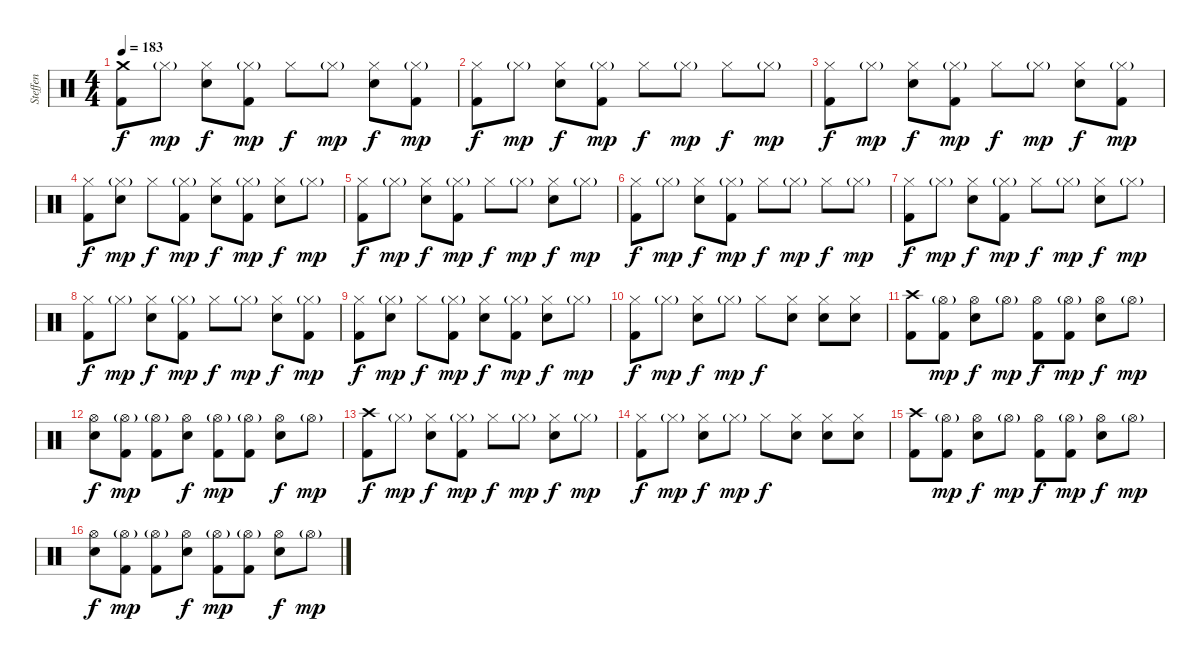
\track ("Steffen" "Steffen") {instrument percussion}
\staff {score}
\articulation defaults
\ts (4 4)
\tempo 183
\clef neutral
\ks c
("Crash medium (hit)" "Kick (hit) 2").8{dy f} "Hi-Hat (closed)"{g}.8{dy mp} ("Hi-Hat (closed)" "Electric Snare (hit)").8{dy f} ("Hi-Hat (closed)"{g} "Kick (hit) 2").8{dy mp} "Hi-Hat (closed)".8{dy f} "Hi-Hat (closed)"{g}.8{dy mp} ("Hi-Hat (closed)" "Electric Snare (hit)").8{dy f} ("Hi-Hat (closed)"{g} "Kick (hit) 2").8{dy mp} |
("Hi-Hat (closed)" "Kick (hit) 2").8{dy f} "Hi-Hat (closed)"{g}.8{dy mp} ("Hi-Hat (closed)" "Electric Snare (hit)").8{dy f} ("Hi-Hat (closed)"{g} "Kick (hit) 2").8{dy mp} "Hi-Hat (closed)".8{dy f} "Hi-Hat (closed)"{g}.8{dy mp} "Hi-Hat (closed)".8{dy f} "Hi-Hat (closed)"{g}.8{dy mp} |
("Hi-Hat (closed)" "Kick (hit) 2").8{dy f} "Hi-Hat (closed)"{g}.8{dy mp} ("Hi-Hat (closed)" "Electric Snare (hit)").8{dy f} ("Hi-Hat (closed)"{g} "Kick (hit) 2").8{dy mp} "Hi-Hat (closed)".8{dy f} "Hi-Hat (closed)"{g}.8{dy mp} ("Hi-Hat (closed)" "Electric Snare (hit)").8{dy f} ("Hi-Hat (closed)"{g} "Kick (hit) 2").8{dy mp} |
("Hi-Hat (closed)" "Kick (hit) 2").8{dy f} ("Hi-Hat (closed)"{g} "Electric Snare (hit)").8{dy mp} "Hi-Hat (closed)".8{dy f} ("Hi-Hat (closed)"{g} "Kick (hit) 2").8{dy mp} ("Hi-Hat (closed)" "Electric Snare (hit)").8{dy f} ("Hi-Hat (closed)"{g} "Kick (hit) 2").8{dy mp} ("Hi-Hat (closed)" "Electric Snare (hit)").8{dy f} "Hi-Hat (closed)"{g}.8{dy mp} |
("Hi-Hat (closed)" "Kick (hit) 2").8{dy f} "Hi-Hat (closed)"{g}.8{dy mp} ("Hi-Hat (closed)" "Electric Snare (hit)").8{dy f} ("Hi-Hat (closed)"{g} "Kick (hit) 2").8{dy mp} "Hi-Hat (closed)".8{dy f} "Hi-Hat (closed)"{g}.8{dy mp} ("Hi-Hat (closed)" "Electric Snare (hit)").8{dy f} "Hi-Hat (closed)"{g}.8{dy mp} |
("Hi-Hat (closed)" "Kick (hit) 2").8{dy f} "Hi-Hat (closed)"{g}.8{dy mp} ("Hi-Hat (closed)" "Electric Snare (hit)").8{dy f} ("Hi-Hat (closed)"{g} "Kick (hit) 2").8{dy mp} "Hi-Hat (closed)".8{dy f} "Hi-Hat (closed)"{g}.8{dy mp} "Hi-Hat (closed)".8{dy f} "Hi-Hat (closed)"{g}.8{dy mp} |
("Hi-Hat (closed)" "Kick (hit) 2").8{dy f} "Hi-Hat (closed)"{g}.8{dy mp} ("Hi-Hat (closed)" "Electric Snare (hit)").8{dy f} ("Hi-Hat (closed)"{g} "Kick (hit) 2").8{dy mp} "Hi-Hat (closed)".8{dy f} "Hi-Hat (closed)"{g}.8{dy mp} ("Hi-Hat (closed)" "Electric Snare (hit)").8{dy f} "Hi-Hat (closed)"{g}.8{dy mp} |
("Hi-Hat (closed)" "Kick (hit) 2").8{dy f} "Hi-Hat (closed)"{g}.8{dy mp} ("Hi-Hat (closed)" "Electric Snare (hit)").8{dy f} ("Hi-Hat (closed)"{g} "Kick (hit) 2").8{dy mp} "Hi-Hat (closed)".8{dy f} "Hi-Hat (closed)"{g}.8{dy mp} ("Hi-Hat (closed)" "Electric Snare (hit)").8{dy f} ("Hi-Hat (closed)"{g} "Kick (hit) 2").8{dy mp} |
("Hi-Hat (closed)" "Kick (hit) 2").8{dy f} ("Hi-Hat (closed)"{g} "Electric Snare (hit)").8{dy mp} "Hi-Hat (closed)".8{dy f} ("Hi-Hat (closed)"{g} "Kick (hit) 2").8{dy mp} ("Hi-Hat (closed)" "Electric Snare (hit)").8{dy f} ("Hi-Hat (closed)"{g} "Kick (hit) 2").8{dy mp} ("Hi-Hat (closed)" "Electric Snare (hit)").8{dy f} "Hi-Hat (closed)"{g}.8{dy mp} |
("Hi-Hat (closed)" "Kick (hit) 2").8{dy f} "Hi-Hat (closed)"{g}.8{dy mp} ("Hi-Hat (closed)" "Electric Snare (hit)").8{dy f} "Hi-Hat (closed)"{g}.8{dy mp} "Hi-Hat (closed)".8{dy f} ("Hi-Hat (closed)" "Electric Snare (hit)").8 ("Hi-Hat (closed)" "Electric Snare (hit)").8 ("Hi-Hat (closed)" "Electric Snare (hit)").8 |
("Crash high (hit)" "Kick (hit) 2").8 ("Hi-Hat (open)"{g} "Kick (hit) 2").8{dy mp} ("Hi-Hat (open)" "Electric Snare (hit)").8{dy f} "Hi-Hat (open)"{g}.8{dy mp} ("Hi-Hat (open)" "Kick (hit) 2").8{dy f} ("Hi-Hat (open)"{g} "Kick (hit) 2").8{dy mp} ("Hi-Hat (open)" "Electric Snare (hit)").8{dy f} "Hi-Hat (open)"{g}.8{dy mp} |
("Hi-Hat (open)" "Electric Snare (hit)").8{dy f} ("Hi-Hat (open)"{g} "Kick (hit) 2").8{dy mp} ("Hi-Hat (open)"{g} "Kick (hit) 2").8 ("Hi-Hat (open)" "Electric Snare (hit)").8{dy f} ("Hi-Hat (open)"{g} "Kick (hit) 2").8{dy mp} ("Hi-Hat (open)"{g} "Kick (hit) 2").8 ("Hi-Hat (open)" "Electric Snare (hit)").8{dy f} "Hi-Hat (open)"{g}.8{dy mp} |
("Crash high (hit)" "Kick (hit) 2").8{dy f} "Hi-Hat (closed)"{g}.8{dy mp} ("Hi-Hat (closed)" "Electric Snare (hit)").8{dy f} ("Hi-Hat (closed)"{g} "Kick (hit) 2").8{dy mp} "Hi-Hat (closed)".8{dy f} "Hi-Hat (closed)"{g}.8{dy mp} ("Hi-Hat (closed)" "Electric Snare (hit)").8{dy f} "Hi-Hat (closed)"{g}.8{dy mp} |
("Hi-Hat (closed)" "Kick (hit) 2").8{dy f} "Hi-Hat (closed)"{g}.8{dy mp} ("Hi-Hat (closed)" "Electric Snare (hit)").8{dy f} "Hi-Hat (closed)"{g}.8{dy mp} "Hi-Hat (closed)".8{dy f} ("Hi-Hat (closed)" "Electric Snare (hit)").8 ("Hi-Hat (closed)" "Electric Snare (hit)").8 ("Hi-Hat (closed)" "Electric Snare (hit)").8 |
("Crash high (hit)" "Kick (hit) 2").8 ("Hi-Hat (open)"{g} "Kick (hit) 2").8{dy mp} ("Hi-Hat (open)" "Electric Snare (hit)").8{dy f} "Hi-Hat (open)"{g}.8{dy mp} ("Hi-Hat (open)" "Kick (hit) 2").8{dy f} ("Hi-Hat (open)"{g} "Kick (hit) 2").8{dy mp} ("Hi-Hat (open)" "Electric Snare (hit)").8{dy f} "Hi-Hat (open)"{g}.8{dy mp} |
("Hi-Hat (open)" "Electric Snare (hit)").8{dy f} ("Hi-Hat (open)"{g} "Kick (hit) 2").8{dy mp} ("Hi-Hat (open)"{g} "Kick (hit) 2").8 ("Hi-Hat (open)" "Electric Snare (hit)").8{dy f} ("Hi-Hat (open)"{g} "Kick (hit) 2").8{dy mp} ("Hi-Hat (open)"{g} "Kick (hit) 2").8 ("Hi-Hat (open)" "Electric Snare (hit)").8{dy f} "Hi-Hat (open)"{g}.8{dy mp}
